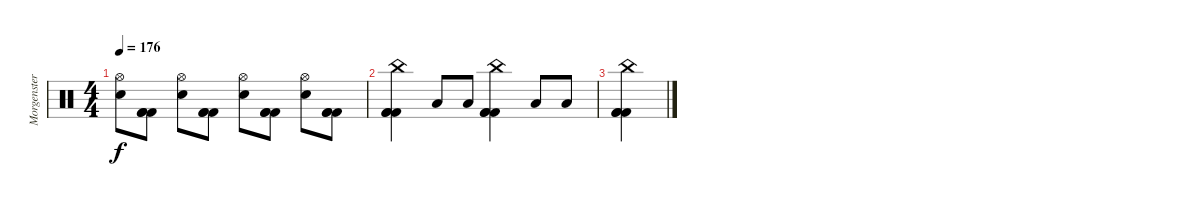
\track ("Morgenstern (Schlagzeug)" "Morgenster") {instrument percussion}
\staff {score}
\articulation defaults
\ts (4 4)
\tempo 176
\clef neutral
\ks c
("Hi-Hat (open)" "Snare (hit) 2").8{dy f} ("Kick (hit) 2" "Kick (hit) 2" "Kick (hit) 2").8 ("Hi-Hat (open)" "Snare (hit) 2").8 ("Kick (hit) 2" "Kick (hit) 2" "Kick (hit) 2").8 ("Hi-Hat (open)" "Snare (hit) 2").8 ("Kick (hit) 2" "Kick (hit) 2" "Kick (hit) 2").8 ("Hi-Hat (open)" "Snare (hit) 2").8 ("Kick (hit) 2" "Kick (hit) 2" "Kick (hit) 2").8 |
("China (hit)" "Kick (hit) 2" "Kick (hit) 2" "Kick (hit) 2").4 "Low Tom (hit)".8 "Low Tom (hit)".8 ("China (hit)" "Kick (hit) 2" "Kick (hit) 2" "Kick (hit) 2").4 "Low Tom (hit)".8 "Low Tom (hit)".8 |
("China (hit)" "Kick (hit) 2" "Kick (hit) 2" "Kick (hit) 2").4
